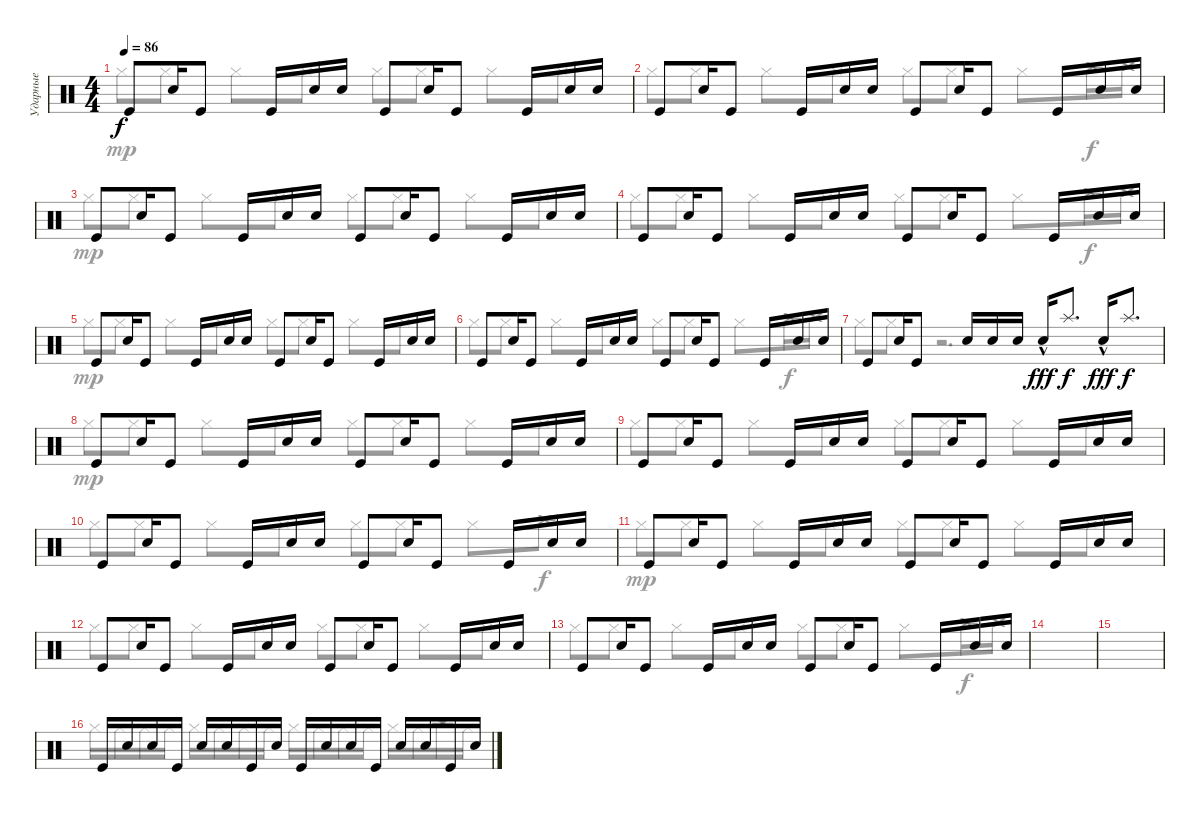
\track ("Ударные" "Ударные") {instrument percussion}
\staff {score}
\articulation defaults
\voice
\ts (4 4)
\tempo 86
\clef neutral
\ks c "Kick (hit)".8{dy f} "Electric Snare (hit)".16 "Kick (hit)".8 "Kick (hit)".16 "Electric Snare (hit)".16 "Electric Snare (hit)".16 "Kick (hit)".8 "Electric Snare (hit)".16 "Kick (hit)".8 "Kick (hit)".16 "Electric Snare (hit)".16 "Electric Snare (hit)".16
|
"Kick (hit)".8 "Electric Snare (hit)".16 "Kick (hit)".8 "Kick (hit)".16 "Electric Snare (hit)".16 "Electric Snare (hit)".16 "Kick (hit)".8 "Electric Snare (hit)".16 "Kick (hit)".8 "Kick (hit)".16 "Electric Snare (hit)".16 "Electric Snare (hit)".16 |
"Kick (hit)".8 "Electric Snare (hit)".16 "Kick (hit)".8 "Kick (hit)".16 "Electric Snare (hit)".16 "Electric Snare (hit)".16 "Kick (hit)".8 "Electric Snare (hit)".16 "Kick (hit)".8 "Kick (hit)".16 "Electric Snare (hit)".16 "Electric Snare (hit)".16 |
"Kick (hit)".8 "Electric Snare (hit)".16 "Kick (hit)".8 "Kick (hit)".16 "Electric Snare (hit)".16 "Electric Snare (hit)".16 "Kick (hit)".8 "Electric Snare (hit)".16 "Kick (hit)".8 "Kick (hit)".16 "Electric Snare (hit)".16 "Electric Snare (hit)".16 |
"Kick (hit)".8 "Electric Snare (hit)".16 "Kick (hit)".8 "Kick (hit)".16 "Electric Snare (hit)".16 "Electric Snare (hit)".16 "Kick (hit)".8 "Electric Snare (hit)".16 "Kick (hit)".8 "Kick (hit)".16 "Electric Snare (hit)".16 "Electric Snare (hit)".16 |
"Kick (hit)".8 "Electric Snare (hit)".16 "Kick (hit)".8 "Kick (hit)".16 "Electric Snare (hit)".16 "Electric Snare (hit)".16 "Kick (hit)".8 "Electric Snare (hit)".16 "Kick (hit)".8 "Kick (hit)".16 "Electric Snare (hit)".16 "Electric Snare (hit)".16 |
"Kick (hit)".8 "Electric Snare (hit)".16 "Kick (hit)".8 "Electric Snare (hit)".16 "Electric Snare (hit)".16 "Electric Snare (hit)".16 "Electric Snare (hit)"{hac}.16{dy fff} "Splash (hit)".8{d dy f} "Electric Snare (hit)"{hac}.16{dy fff} "Splash (hit)".8{d dy f} |
"Kick (hit)".8 "Electric Snare (hit)".16 "Kick (hit)".8 "Kick (hit)".16 "Electric Snare (hit)".16 "Electric Snare (hit)".16 "Kick (hit)".8 "Electric Snare (hit)".16 "Kick (hit)".8 "Kick (hit)".16 "Electric Snare (hit)".16 "Electric Snare (hit)".16 |
"Kick (hit)".8 "Electric Snare (hit)".16 "Kick (hit)".8 "Kick (hit)".16 "Electric Snare (hit)".16 "Electric Snare (hit)".16 "Kick (hit)".8 "Electric Snare (hit)".16 "Kick (hit)".8 "Kick (hit)".16 "Electric Snare (hit)".16 "Electric Snare (hit)".16 |
"Kick (hit)".8 "Electric Snare (hit)".16 "Kick (hit)".8 "Kick (hit)".16 "Electric Snare (hit)".16 "Electric Snare (hit)".16 "Kick (hit)".8 "Electric Snare (hit)".16 "Kick (hit)".8 "Kick (hit)".16 "Electric Snare (hit)".16 "Electric Snare (hit)".16 |
"Kick (hit)".8 "Electric Snare (hit)".16 "Kick (hit)".8 "Kick (hit)".16 "Electric Snare (hit)".16 "Electric Snare (hit)".16 "Kick (hit)".8 "Electric Snare (hit)".16 "Kick (hit)".8 "Kick (hit)".16 "Electric Snare (hit)".16 "Electric Snare (hit)".16 |
"Kick (hit)".8 "Electric Snare (hit)".16 "Kick (hit)".8 "Kick (hit)".16 "Electric Snare (hit)".16 "Electric Snare (hit)".16 "Kick (hit)".8 "Electric Snare (hit)".16 "Kick (hit)".8 "Kick (hit)".16 "Electric Snare (hit)".16 "Electric Snare (hit)".16 |
"Kick (hit)".8 "Electric Snare (hit)".16 "Kick (hit)".8 "Kick (hit)".16 "Electric Snare (hit)".16 "Electric Snare (hit)".16 "Kick (hit)".8 "Electric Snare (hit)".16 "Kick (hit)".8 "Kick (hit)".16 "Electric Snare (hit)".16 "Electric Snare (hit)".16 |
|
|
"Kick (hit)".16 "Electric Snare (hit)".16 "Electric Snare (hit)".16 "Kick (hit)".16 "Electric Snare (hit)".16 "Electric Snare (hit)".16 "Kick (hit)".16 "Electric Snare (hit)".16 "Kick (hit)".16 "Electric Snare (hit)".16 "Electric Snare (hit)".16 "Kick (hit)".16 "Electric Snare (hit)".16 "Electric Snare (hit)".16 "Kick (hit)".16 "Electric Snare (hit)".16
\voice
\clef neutral
\ottava regular
\simile none
\ks c "Hi-Hat (closed)".8{dy mp} "Hi-Hat (closed)".8 "Hi-Hat (closed)".8 "Hi-Hat (closed)".8 "Hi-Hat (closed)".8 "Hi-Hat (closed)".8 "Hi-Hat (closed)".8 "Hi-Hat (closed)".8
|
"Hi-Hat (closed)".8 "Hi-Hat (closed)".8 "Hi-Hat (closed)".8 "Hi-Hat (closed)".8 "Hi-Hat (closed)".8 "Hi-Hat (closed)".8 "Hi-Hat (closed)".8 "Crash high (hit)".16{dy f} "Crash high (hit)".16 |
"Hi-Hat (closed)".8{dy mp} "Hi-Hat (closed)".8 "Hi-Hat (closed)".8 "Hi-Hat (closed)".8 "Hi-Hat (closed)".8 "Hi-Hat (closed)".8 "Hi-Hat (closed)".8 "Hi-Hat (closed)".8 |
"Hi-Hat (closed)".8 "Hi-Hat (closed)".8 "Hi-Hat (closed)".8 "Hi-Hat (closed)".8 "Hi-Hat (closed)".8 "Hi-Hat (closed)".8 "Hi-Hat (closed)".8 "Crash high (hit)".16{dy f} "Crash high (hit)".16 |
"Hi-Hat (closed)".8{dy mp} "Hi-Hat (closed)".8 "Hi-Hat (closed)".8 "Hi-Hat (closed)".8 "Hi-Hat (closed)".8 "Hi-Hat (closed)".8 "Hi-Hat (closed)".8 "Hi-Hat (closed)".8 |
"Hi-Hat (closed)".8 "Hi-Hat (closed)".8 "Hi-Hat (closed)".8 "Hi-Hat (closed)".8 "Hi-Hat (closed)".8 "Hi-Hat (closed)".8 "Hi-Hat (closed)".8 "Crash high (hit)".16{dy f} "Crash high (hit)".16 |
"Hi-Hat (closed)".8 "Hi-Hat (closed)".8 r.2{d} |
"Hi-Hat (closed)".8{dy mp} "Hi-Hat (closed)".8 "Hi-Hat (closed)".8 "Hi-Hat (closed)".8 "Hi-Hat (closed)".8 "Hi-Hat (closed)".8 "Hi-Hat (closed)".8 "Hi-Hat (closed)".8 |
"Hi-Hat (closed)".8 "Hi-Hat (closed)".8 "Hi-Hat (closed)".8 "Hi-Hat (closed)".8 "Hi-Hat (closed)".8 "Hi-Hat (closed)".8 "Hi-Hat (closed)".8 "Hi-Hat (closed)".8 |
"Hi-Hat (closed)".8 "Hi-Hat (closed)".8 "Hi-Hat (closed)".8 "Hi-Hat (closed)".8 "Hi-Hat (closed)".8 "Hi-Hat (closed)".8 "Hi-Hat (closed)".8 "Crash high (hit)".8{dy f} |
"Hi-Hat (closed)".8{dy mp} "Hi-Hat (closed)".8 "Hi-Hat (closed)".8 "Hi-Hat (closed)".8 "Hi-Hat (closed)".8 "Hi-Hat (closed)".8 "Hi-Hat (closed)".8 "Hi-Hat (closed)".8 |
"Hi-Hat (closed)".8 "Hi-Hat (closed)".8 "Hi-Hat (closed)".8 "Hi-Hat (closed)".8 "Hi-Hat (closed)".8 "Hi-Hat (closed)".8 "Hi-Hat (closed)".8 "Hi-Hat (closed)".8 |
"Hi-Hat (closed)".8 "Hi-Hat (closed)".8 "Hi-Hat (closed)".8 "Hi-Hat (closed)".8 "Hi-Hat (closed)".8 "Hi-Hat (closed)".8 "Hi-Hat (closed)".8 "Crash high (hit)".16{dy f} "Crash high (hit)".16 |
|
|
"Hi-Hat (closed)".16 "Hi-Hat (closed)".16 "Hi-Hat (closed)".16 "Hi-Hat (closed)".16 "Hi-Hat (closed)".16 "Hi-Hat (closed)".16 "Hi-Hat (closed)".16 "Hi-Hat (closed)".16 "Hi-Hat (closed)".16 "Hi-Hat (closed)".16 "Hi-Hat (closed)".16 "Hi-Hat (closed)".16 "Hi-Hat (closed)".16 "Hi-Hat (closed)".16 "Crash high (hit)".16 "Hi-Hat (closed)".16
